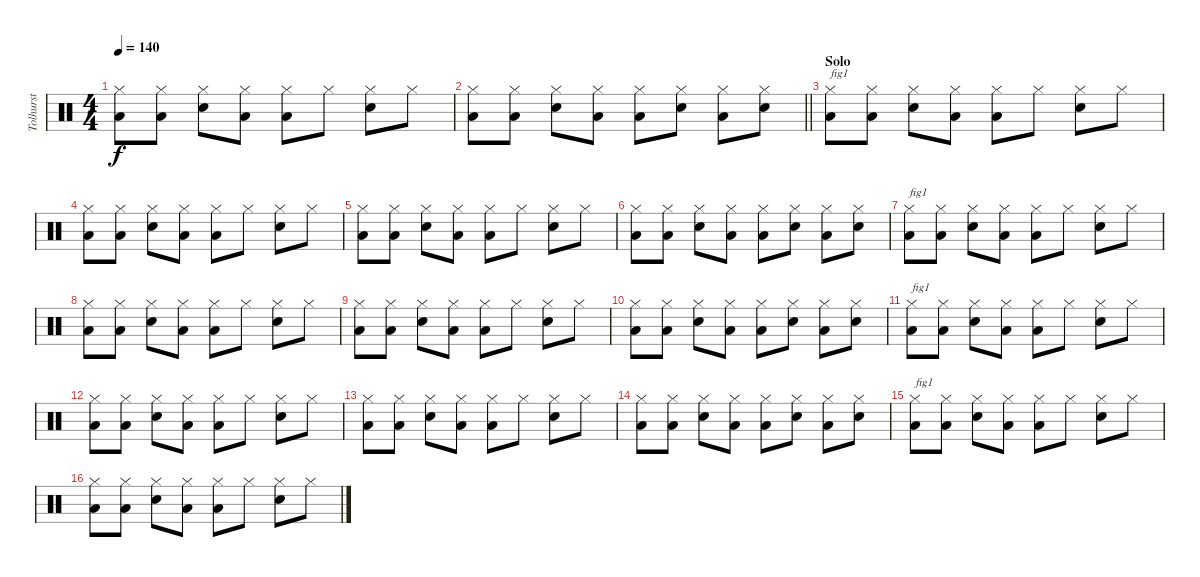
\track ("Tolhurst" "Tolhurst") {instrument percussion}
\staff {score}
\articulation defaults
\ts (4 4)
\tempo 140
\clef neutral
\ks c
("Low Floor Tom (hit)" "Hi-Hat (closed)").8{dy f} ("Low Floor Tom (hit)" "Hi-Hat (closed)").8 ("Snare (hit) 2" "Hi-Hat (closed)").8 ("Low Floor Tom (hit)" "Hi-Hat (closed)").8 ("Low Floor Tom (hit)" "Hi-Hat (closed)").8 "Hi-Hat (closed)".8 ("Snare (hit) 2" "Hi-Hat (closed)").8 "Hi-Hat (closed)".8 |
\barLineRight lightlight
("Low Floor Tom (hit)" "Hi-Hat (closed)").8 ("Low Floor Tom (hit)" "Hi-Hat (closed)").8 ("Snare (hit) 2" "Hi-Hat (closed)").8 ("Low Floor Tom (hit)" "Hi-Hat (closed)").8 ("Low Floor Tom (hit)" "Hi-Hat (closed)").8 ("Snare (hit) 2" "Hi-Hat (closed)").8 ("Low Floor Tom (hit)" "Hi-Hat (closed)").8 ("Snare (hit) 2" "Hi-Hat (closed)").8 |
\section ("" "Solo")
("Low Floor Tom (hit)" "Hi-Hat (closed)").8{txt "fig1"} ("Low Floor Tom (hit)" "Hi-Hat (closed)").8 ("Snare (hit) 2" "Hi-Hat (closed)").8 ("Low Floor Tom (hit)" "Hi-Hat (closed)").8 ("Low Floor Tom (hit)" "Hi-Hat (closed)").8 "Hi-Hat (closed)".8 ("Snare (hit) 2" "Hi-Hat (closed)").8 "Hi-Hat (closed)".8 |
("Low Floor Tom (hit)" "Hi-Hat (closed)").8 ("Low Floor Tom (hit)" "Hi-Hat (closed)").8 ("Snare (hit) 2" "Hi-Hat (closed)").8 ("Low Floor Tom (hit)" "Hi-Hat (closed)").8 ("Low Floor Tom (hit)" "Hi-Hat (closed)").8 "Hi-Hat (closed)".8 ("Snare (hit) 2" "Hi-Hat (closed)").8 "Hi-Hat (closed)".8 |
("Low Floor Tom (hit)" "Hi-Hat (closed)").8 ("Low Floor Tom (hit)" "Hi-Hat (closed)").8 ("Snare (hit) 2" "Hi-Hat (closed)").8 ("Low Floor Tom (hit)" "Hi-Hat (closed)").8 ("Low Floor Tom (hit)" "Hi-Hat (closed)").8 "Hi-Hat (closed)".8 ("Snare (hit) 2" "Hi-Hat (closed)").8 "Hi-Hat (closed)".8 |
("Low Floor Tom (hit)" "Hi-Hat (closed)").8 ("Low Floor Tom (hit)" "Hi-Hat (closed)").8 ("Snare (hit) 2" "Hi-Hat (closed)").8 ("Low Floor Tom (hit)" "Hi-Hat (closed)").8 ("Low Floor Tom (hit)" "Hi-Hat (closed)").8 ("Snare (hit) 2" "Hi-Hat (closed)").8 ("Low Floor Tom (hit)" "Hi-Hat (closed)").8 ("Snare (hit) 2" "Hi-Hat (closed)").8 |
("Low Floor Tom (hit)" "Hi-Hat (closed)").8{txt "fig1"} ("Low Floor Tom (hit)" "Hi-Hat (closed)").8 ("Snare (hit) 2" "Hi-Hat (closed)").8 ("Low Floor Tom (hit)" "Hi-Hat (closed)").8 ("Low Floor Tom (hit)" "Hi-Hat (closed)").8 "Hi-Hat (closed)".8 ("Snare (hit) 2" "Hi-Hat (closed)").8 "Hi-Hat (closed)".8 |
("Low Floor Tom (hit)" "Hi-Hat (closed)").8 ("Low Floor Tom (hit)" "Hi-Hat (closed)").8 ("Snare (hit) 2" "Hi-Hat (closed)").8 ("Low Floor Tom (hit)" "Hi-Hat (closed)").8 ("Low Floor Tom (hit)" "Hi-Hat (closed)").8 "Hi-Hat (closed)".8 ("Snare (hit) 2" "Hi-Hat (closed)").8 "Hi-Hat (closed)".8 |
("Low Floor Tom (hit)" "Hi-Hat (closed)").8 ("Low Floor Tom (hit)" "Hi-Hat (closed)").8 ("Snare (hit) 2" "Hi-Hat (closed)").8 ("Low Floor Tom (hit)" "Hi-Hat (closed)").8 ("Low Floor Tom (hit)" "Hi-Hat (closed)").8 "Hi-Hat (closed)".8 ("Snare (hit) 2" "Hi-Hat (closed)").8 "Hi-Hat (closed)".8 |
("Low Floor Tom (hit)" "Hi-Hat (closed)").8 ("Low Floor Tom (hit)" "Hi-Hat (closed)").8 ("Snare (hit) 2" "Hi-Hat (closed)").8 ("Low Floor Tom (hit)" "Hi-Hat (closed)").8 ("Low Floor Tom (hit)" "Hi-Hat (closed)").8 ("Snare (hit) 2" "Hi-Hat (closed)").8 ("Low Floor Tom (hit)" "Hi-Hat (closed)").8 ("Snare (hit) 2" "Hi-Hat (closed)").8 |
("Low Floor Tom (hit)" "Hi-Hat (closed)").8{txt "fig1"} ("Low Floor Tom (hit)" "Hi-Hat (closed)").8 ("Snare (hit) 2" "Hi-Hat (closed)").8 ("Low Floor Tom (hit)" "Hi-Hat (closed)").8 ("Low Floor Tom (hit)" "Hi-Hat (closed)").8 "Hi-Hat (closed)".8 ("Snare (hit) 2" "Hi-Hat (closed)").8 "Hi-Hat (closed)".8 |
("Low Floor Tom (hit)" "Hi-Hat (closed)").8 ("Low Floor Tom (hit)" "Hi-Hat (closed)").8 ("Snare (hit) 2" "Hi-Hat (closed)").8 ("Low Floor Tom (hit)" "Hi-Hat (closed)").8 ("Low Floor Tom (hit)" "Hi-Hat (closed)").8 "Hi-Hat (closed)".8 ("Snare (hit) 2" "Hi-Hat (closed)").8 "Hi-Hat (closed)".8 |
("Low Floor Tom (hit)" "Hi-Hat (closed)").8 ("Low Floor Tom (hit)" "Hi-Hat (closed)").8 ("Snare (hit) 2" "Hi-Hat (closed)").8 ("Low Floor Tom (hit)" "Hi-Hat (closed)").8 ("Low Floor Tom (hit)" "Hi-Hat (closed)").8 "Hi-Hat (closed)".8 ("Snare (hit) 2" "Hi-Hat (closed)").8 "Hi-Hat (closed)".8 |
("Low Floor Tom (hit)" "Hi-Hat (closed)").8 ("Low Floor Tom (hit)" "Hi-Hat (closed)").8 ("Snare (hit) 2" "Hi-Hat (closed)").8 ("Low Floor Tom (hit)" "Hi-Hat (closed)").8 ("Low Floor Tom (hit)" "Hi-Hat (closed)").8 ("Snare (hit) 2" "Hi-Hat (closed)").8 ("Low Floor Tom (hit)" "Hi-Hat (closed)").8 ("Snare (hit) 2" "Hi-Hat (closed)").8 |
("Low Floor Tom (hit)" "Hi-Hat (closed)").8{txt "fig1"} ("Low Floor Tom (hit)" "Hi-Hat (closed)").8 ("Snare (hit) 2" "Hi-Hat (closed)").8 ("Low Floor Tom (hit)" "Hi-Hat (closed)").8 ("Low Floor Tom (hit)" "Hi-Hat (closed)").8 "Hi-Hat (closed)".8 ("Snare (hit) 2" "Hi-Hat (closed)").8 "Hi-Hat (closed)".8 |
("Low Floor Tom (hit)" "Hi-Hat (closed)").8 ("Low Floor Tom (hit)" "Hi-Hat (closed)").8 ("Snare (hit) 2" "Hi-Hat (closed)").8 ("Low Floor Tom (hit)" "Hi-Hat (closed)").8 ("Low Floor Tom (hit)" "Hi-Hat (closed)").8 "Hi-Hat (closed)".8 ("Snare (hit) 2" "Hi-Hat (closed)").8 "Hi-Hat (closed)".8
